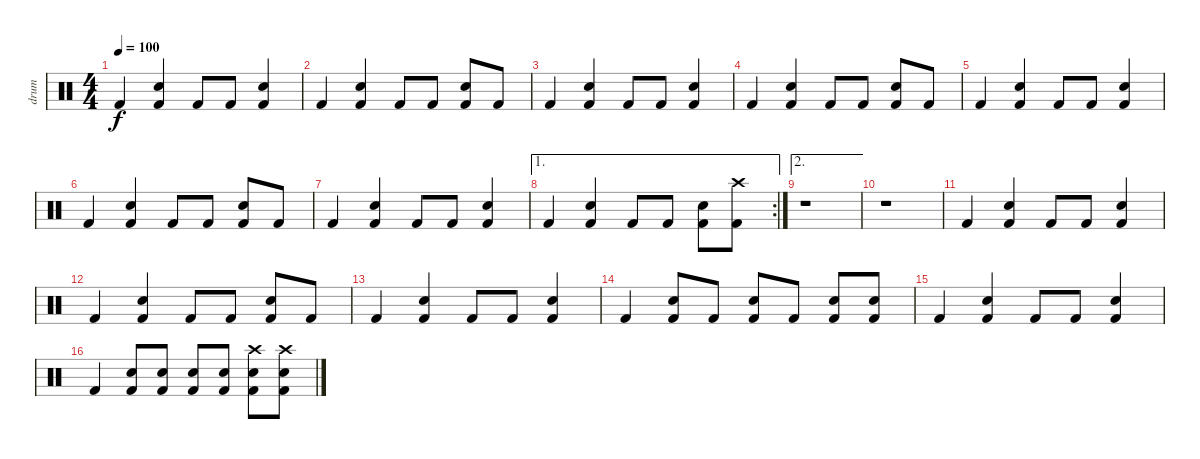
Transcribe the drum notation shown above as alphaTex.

\track ("drum" "drum") {instrument percussion}
\staff {score}
\articulation defaults
\ts (4 4)
\tempo 100
\clef neutral
\ks c "Kick (hit) 2".4{dy f}
("Electric Snare (hit)" "Kick (hit) 2").4 "Kick (hit) 2".8 "Kick (hit) 2".8 ("Electric Snare (hit)" "Kick (hit) 2").4 |
"Kick (hit) 2".4 ("Electric Snare (hit)" "Kick (hit) 2").4 "Kick (hit) 2".8 "Kick (hit) 2".8 ("Electric Snare (hit)" "Kick (hit) 2").8 "Kick (hit) 2".8 |
"Kick (hit) 2".4 ("Electric Snare (hit)" "Kick (hit) 2").4 "Kick (hit) 2".8 "Kick (hit) 2".8 ("Electric Snare (hit)" "Kick (hit) 2").4 |
"Kick (hit) 2".4 ("Electric Snare (hit)" "Kick (hit) 2").4 "Kick (hit) 2".8 "Kick (hit) 2".8 ("Electric Snare (hit)" "Kick (hit) 2").8 "Kick (hit) 2".8 |
"Kick (hit) 2".4 ("Electric Snare (hit)" "Kick (hit) 2").4 "Kick (hit) 2".8 "Kick (hit) 2".8 ("Electric Snare (hit)" "Kick (hit) 2").4 |
"Kick (hit) 2".4 ("Electric Snare (hit)" "Kick (hit) 2").4 "Kick (hit) 2".8 "Kick (hit) 2".8 ("Electric Snare (hit)" "Kick (hit) 2").8 "Kick (hit) 2".8 |
"Kick (hit) 2".4 ("Electric Snare (hit)" "Kick (hit) 2").4 "Kick (hit) 2".8 "Kick (hit) 2".8 ("Electric Snare (hit)" "Kick (hit) 2").4 |
\ae 1
\rc 2 "Kick (hit) 2".4
("Electric Snare (hit)" "Kick (hit) 2").4 "Kick (hit) 2".8 "Kick (hit) 2".8 ("Electric Snare (hit)" "Kick (hit) 2").8 ("Crash high (hit)" "Kick (hit) 2").8 |
\ae 2
r.1 |
r.1 |
"Kick (hit) 2".4 ("Electric Snare (hit)" "Kick (hit) 2").4 "Kick (hit) 2".8 "Kick (hit) 2".8 ("Electric Snare (hit)" "Kick (hit) 2").4 |
"Kick (hit) 2".4 ("Electric Snare (hit)" "Kick (hit) 2").4 "Kick (hit) 2".8 "Kick (hit) 2".8 ("Electric Snare (hit)" "Kick (hit) 2").8 "Kick (hit) 2".8 |
"Kick (hit) 2".4 ("Electric Snare (hit)" "Kick (hit) 2").4 "Kick (hit) 2".8 "Kick (hit) 2".8 ("Electric Snare (hit)" "Kick (hit) 2").4 |
"Kick (hit) 2".4 ("Electric Snare (hit)" "Kick (hit) 2").8 "Kick (hit) 2".8 ("Electric Snare (hit)" "Kick (hit) 2").8 "Kick (hit) 2".8 ("Electric Snare (hit)" "Kick (hit) 2").8 ("Electric Snare (hit)" "Kick (hit) 2").8 |
"Kick (hit) 2".4 ("Electric Snare (hit)" "Kick (hit) 2").4 "Kick (hit) 2".8 "Kick (hit) 2".8 ("Electric Snare (hit)" "Kick (hit) 2").4 |
"Kick (hit) 2".4 ("Electric Snare (hit)" "Kick (hit) 2").8 ("Electric Snare (hit)" "Kick (hit) 2").8 ("Electric Snare (hit)" "Kick (hit) 2").8 ("Electric Snare (hit)" "Kick (hit) 2").8 ("Crash high (hit)" "Electric Snare (hit)" "Kick (hit) 2").8 ("Crash high (hit)" "Electric Snare (hit)" "Kick (hit) 2").8
